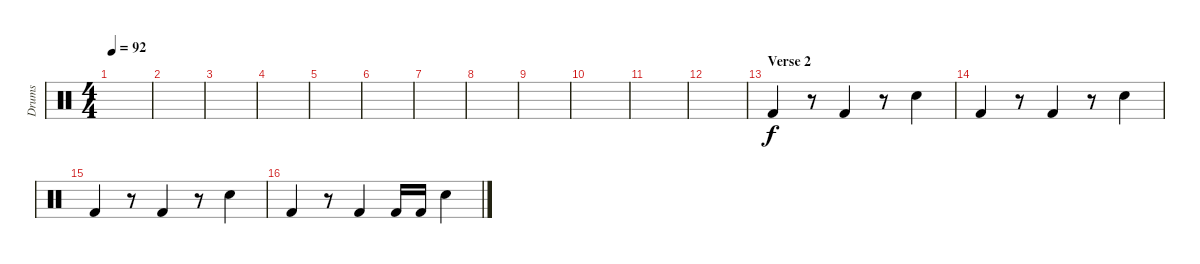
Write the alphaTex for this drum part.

\track ("Drums" "Drums") {instrument percussion}
\staff {score}
\articulation defaults
\ts (4 4)
\tempo 92
\clef neutral
\ks c
|
|
|
|
|
|
|
|
|
|
|
|
\section ("" "Verse 2")
"Kick (hit) 2".4 r.8 "Kick (hit) 2".4 r.8 "Snare (hit) 2".4 |
"Kick (hit) 2".4 r.8 "Kick (hit) 2".4 r.8 "Snare (hit) 2".4 |
"Kick (hit) 2".4 r.8 "Kick (hit) 2".4 r.8 "Snare (hit) 2".4 |
"Kick (hit) 2".4 r.8 "Kick (hit) 2".4 "Kick (hit) 2".16 "Kick (hit) 2".16 "Snare (hit) 2".4
